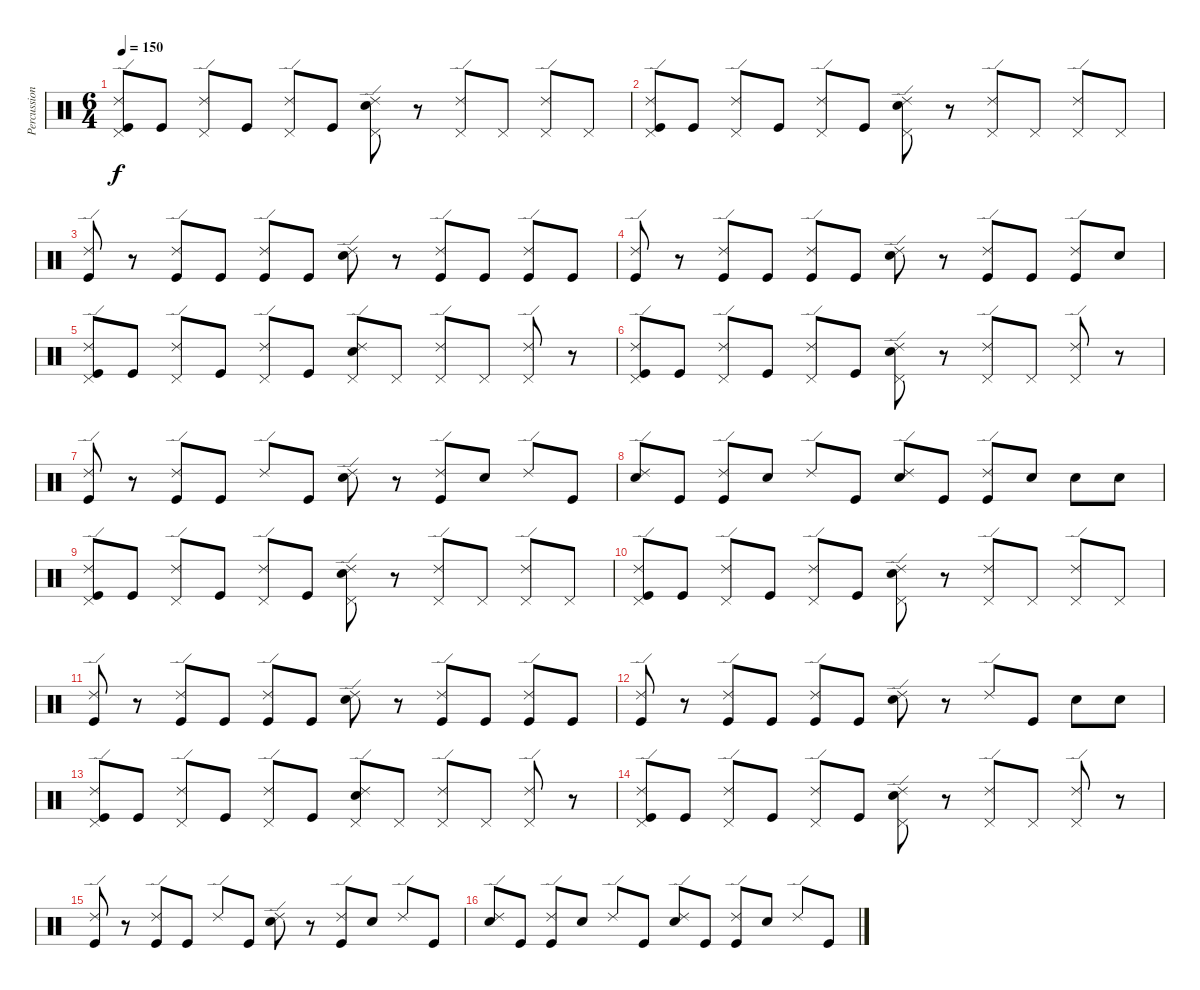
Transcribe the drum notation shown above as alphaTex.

\track ("Percussion" "Percussion") {instrument percussion}
\staff {score}
\articulation defaults
\ts (6 4)
\tempo 150
\clef neutral
\ks c
("Ride (edge) 2" "Pedal Hi-Hat (hit)" "Kick (hit)").8{dy f} "Kick (hit)".8 ("Ride (edge) 2" "Pedal Hi-Hat (hit)").8 "Kick (hit)".8 ("Ride (edge) 2" "Pedal Hi-Hat (hit)").8 "Kick (hit)".8 ("Ride (edge) 2" "Pedal Hi-Hat (hit)" "Snare (hit) 2").8 r.8 ("Ride (edge) 2" "Pedal Hi-Hat (hit)").8 "Pedal Hi-Hat (hit)".8 ("Ride (edge) 2" "Pedal Hi-Hat (hit)").8 "Pedal Hi-Hat (hit)".8 |
("Ride (edge) 2" "Pedal Hi-Hat (hit)" "Kick (hit)").8 "Kick (hit)".8 ("Ride (edge) 2" "Pedal Hi-Hat (hit)").8 "Kick (hit)".8 ("Ride (edge) 2" "Pedal Hi-Hat (hit)").8 "Kick (hit)".8 ("Ride (edge) 2" "Pedal Hi-Hat (hit)" "Snare (hit) 2").8 r.8 ("Ride (edge) 2" "Pedal Hi-Hat (hit)").8 "Pedal Hi-Hat (hit)".8 ("Ride (edge) 2" "Pedal Hi-Hat (hit)").8 "Pedal Hi-Hat (hit)".8 |
("Ride (edge) 2" "Kick (hit)").8 r.8 ("Ride (edge) 2" "Kick (hit)").8 "Kick (hit)".8 ("Ride (edge) 2" "Kick (hit)").8 "Kick (hit)".8 ("Ride (edge) 2" "Snare (hit) 2").8 r.8 ("Ride (edge) 2" "Kick (hit)").8 "Kick (hit)".8 ("Ride (edge) 2" "Kick (hit)").8 "Kick (hit)".8 |
("Ride (edge) 2" "Kick (hit)").8 r.8 ("Ride (edge) 2" "Kick (hit)").8 "Kick (hit)".8 ("Ride (edge) 2" "Kick (hit)").8 "Kick (hit)".8 ("Ride (edge) 2" "Snare (hit) 2").8 r.8 ("Ride (edge) 2" "Kick (hit)").8 "Kick (hit)".8 ("Ride (edge) 2" "Kick (hit)").8 "Snare (hit) 2".8 |
("Ride (edge) 2" "Pedal Hi-Hat (hit)" "Kick (hit)").8 "Kick (hit)".8 ("Ride (edge) 2" "Pedal Hi-Hat (hit)").8 "Kick (hit)".8 ("Ride (edge) 2" "Pedal Hi-Hat (hit)").8 "Kick (hit)".8 ("Ride (edge) 2" "Pedal Hi-Hat (hit)" "Snare (hit) 2").8 "Pedal Hi-Hat (hit)".8 ("Ride (edge) 2" "Pedal Hi-Hat (hit)").8 "Pedal Hi-Hat (hit)".8 ("Ride (edge) 2" "Pedal Hi-Hat (hit)").8 r.8 |
("Ride (edge) 2" "Pedal Hi-Hat (hit)" "Kick (hit)").8 "Kick (hit)".8 ("Ride (edge) 2" "Pedal Hi-Hat (hit)").8 "Kick (hit)".8 ("Ride (edge) 2" "Pedal Hi-Hat (hit)").8 "Kick (hit)".8 ("Ride (edge) 2" "Pedal Hi-Hat (hit)" "Snare (hit) 2").8 r.8 ("Ride (edge) 2" "Pedal Hi-Hat (hit)").8 "Pedal Hi-Hat (hit)".8 ("Ride (edge) 2" "Pedal Hi-Hat (hit)").8 r.8 |
("Ride (edge) 2" "Kick (hit)").8 r.8 ("Ride (edge) 2" "Kick (hit)").8 "Kick (hit)".8 "Ride (edge) 2".8 "Kick (hit)".8 ("Ride (edge) 2" "Snare (hit) 2").8 r.8 ("Ride (edge) 2" "Kick (hit)").8 "Snare (hit) 2".8 "Ride (edge) 2".8 "Kick (hit)".8 |
("Ride (edge) 2" "Snare (hit) 2").8 "Kick (hit)".8 ("Ride (edge) 2" "Kick (hit)").8 "Snare (hit) 2".8 "Ride (edge) 2".8 "Kick (hit)".8 ("Ride (edge) 2" "Snare (hit) 2").8 "Kick (hit)".8 ("Ride (edge) 2" "Kick (hit)").8 "Snare (hit) 2".8 "Snare (hit) 2".8 "Snare (hit) 2".8 |
("Ride (edge) 2" "Pedal Hi-Hat (hit)" "Kick (hit)").8 "Kick (hit)".8 ("Ride (edge) 2" "Pedal Hi-Hat (hit)").8 "Kick (hit)".8 ("Ride (edge) 2" "Pedal Hi-Hat (hit)").8 "Kick (hit)".8 ("Ride (edge) 2" "Pedal Hi-Hat (hit)" "Snare (hit) 2").8 r.8 ("Ride (edge) 2" "Pedal Hi-Hat (hit)").8 "Pedal Hi-Hat (hit)".8 ("Ride (edge) 2" "Pedal Hi-Hat (hit)").8 "Pedal Hi-Hat (hit)".8 |
("Ride (edge) 2" "Pedal Hi-Hat (hit)" "Kick (hit)").8 "Kick (hit)".8 ("Ride (edge) 2" "Pedal Hi-Hat (hit)").8 "Kick (hit)".8 ("Ride (edge) 2" "Pedal Hi-Hat (hit)").8 "Kick (hit)".8 ("Ride (edge) 2" "Pedal Hi-Hat (hit)" "Snare (hit) 2").8 r.8 ("Ride (edge) 2" "Pedal Hi-Hat (hit)").8 "Pedal Hi-Hat (hit)".8 ("Ride (edge) 2" "Pedal Hi-Hat (hit)").8 "Pedal Hi-Hat (hit)".8 |
("Ride (edge) 2" "Kick (hit)").8 r.8 ("Ride (edge) 2" "Kick (hit)").8 "Kick (hit)".8 ("Ride (edge) 2" "Kick (hit)").8 "Kick (hit)".8 ("Ride (edge) 2" "Snare (hit) 2").8 r.8 ("Ride (edge) 2" "Kick (hit)").8 "Kick (hit)".8 ("Ride (edge) 2" "Kick (hit)").8 "Kick (hit)".8 |
("Ride (edge) 2" "Kick (hit)").8 r.8 ("Ride (edge) 2" "Kick (hit)").8 "Kick (hit)".8 ("Ride (edge) 2" "Kick (hit)").8 "Kick (hit)".8 ("Ride (edge) 2" "Snare (hit) 2").8 r.8 "Ride (edge) 2".8 "Kick (hit)".8 "Snare (hit) 2".8 "Snare (hit) 2".8 |
("Ride (edge) 2" "Pedal Hi-Hat (hit)" "Kick (hit)").8 "Kick (hit)".8 ("Ride (edge) 2" "Pedal Hi-Hat (hit)").8 "Kick (hit)".8 ("Ride (edge) 2" "Pedal Hi-Hat (hit)").8 "Kick (hit)".8 ("Ride (edge) 2" "Pedal Hi-Hat (hit)" "Snare (hit) 2").8 "Pedal Hi-Hat (hit)".8 ("Ride (edge) 2" "Pedal Hi-Hat (hit)").8 "Pedal Hi-Hat (hit)".8 ("Ride (edge) 2" "Pedal Hi-Hat (hit)").8 r.8 |
("Ride (edge) 2" "Pedal Hi-Hat (hit)" "Kick (hit)").8 "Kick (hit)".8 ("Ride (edge) 2" "Pedal Hi-Hat (hit)").8 "Kick (hit)".8 ("Ride (edge) 2" "Pedal Hi-Hat (hit)").8 "Kick (hit)".8 ("Ride (edge) 2" "Pedal Hi-Hat (hit)" "Snare (hit) 2").8 r.8 ("Ride (edge) 2" "Pedal Hi-Hat (hit)").8 "Pedal Hi-Hat (hit)".8 ("Ride (edge) 2" "Pedal Hi-Hat (hit)").8 r.8 |
("Ride (edge) 2" "Kick (hit)").8 r.8 ("Ride (edge) 2" "Kick (hit)").8 "Kick (hit)".8 "Ride (edge) 2".8 "Kick (hit)".8 ("Ride (edge) 2" "Snare (hit) 2").8 r.8 ("Ride (edge) 2" "Kick (hit)").8 "Snare (hit) 2".8 "Ride (edge) 2".8 "Kick (hit)".8 |
("Ride (edge) 2" "Snare (hit) 2").8 "Kick (hit)".8 ("Ride (edge) 2" "Kick (hit)").8 "Snare (hit) 2".8 "Ride (edge) 2".8 "Kick (hit)".8 ("Ride (edge) 2" "Snare (hit) 2").8 "Kick (hit)".8 ("Ride (edge) 2" "Kick (hit)").8 "Snare (hit) 2".8 "Ride (edge) 2".8 "Kick (hit)".8
